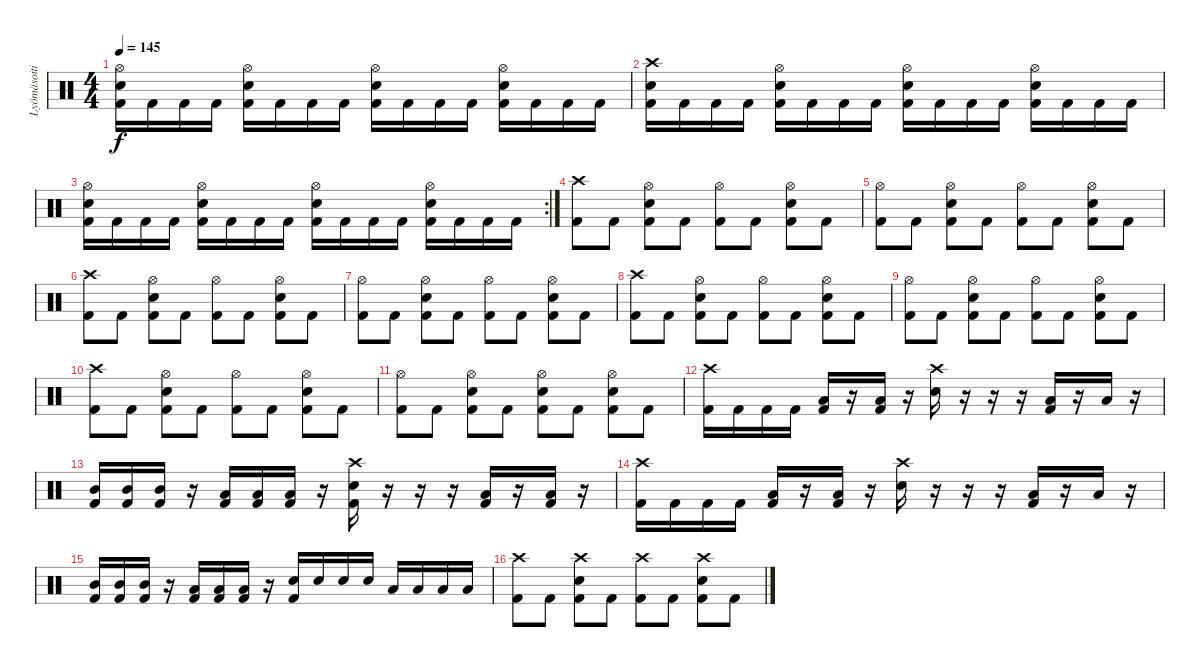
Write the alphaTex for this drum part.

\track ("Lyömäsoitin" "Lyömäsoiti") {instrument percussion}
\staff {score}
\articulation defaults
\ts (4 4)
\tempo 145
\clef neutral
\ks c
("Kick (hit) 2" "Electric Snare (hit)" "Hi-Hat (open)").16{dy f} "Kick (hit) 2".16 "Kick (hit) 2".16 "Kick (hit) 2".16 ("Kick (hit) 2" "Electric Snare (hit)" "Hi-Hat (open)").16 "Kick (hit) 2".16 "Kick (hit) 2".16 "Kick (hit) 2".16 ("Kick (hit) 2" "Electric Snare (hit)" "Hi-Hat (open)").16 "Kick (hit) 2".16 "Kick (hit) 2".16 "Kick (hit) 2".16 ("Kick (hit) 2" "Electric Snare (hit)" "Hi-Hat (open)").16 "Kick (hit) 2".16 "Kick (hit) 2".16 "Kick (hit) 2".16 |
("Kick (hit) 2" "Electric Snare (hit)" "Crash high (hit)").16 "Kick (hit) 2".16 "Kick (hit) 2".16 "Kick (hit) 2".16 ("Kick (hit) 2" "Electric Snare (hit)" "Hi-Hat (open)").16 "Kick (hit) 2".16 "Kick (hit) 2".16 "Kick (hit) 2".16 ("Kick (hit) 2" "Electric Snare (hit)" "Hi-Hat (open)").16 "Kick (hit) 2".16 "Kick (hit) 2".16 "Kick (hit) 2".16 ("Kick (hit) 2" "Electric Snare (hit)" "Hi-Hat (open)").16 "Kick (hit) 2".16 "Kick (hit) 2".16 "Kick (hit) 2".16 |
\rc 2
("Kick (hit) 2" "Electric Snare (hit)" "Hi-Hat (open)").16 "Kick (hit) 2".16 "Kick (hit) 2".16 "Kick (hit) 2".16 ("Kick (hit) 2" "Electric Snare (hit)" "Hi-Hat (open)").16 "Kick (hit) 2".16 "Kick (hit) 2".16 "Kick (hit) 2".16 ("Kick (hit) 2" "Electric Snare (hit)" "Hi-Hat (open)").16 "Kick (hit) 2".16 "Kick (hit) 2".16 "Kick (hit) 2".16 ("Kick (hit) 2" "Electric Snare (hit)" "Hi-Hat (open)").16 "Kick (hit) 2".16 "Kick (hit) 2".16 "Kick (hit) 2".16 |
("Kick (hit) 2" "Crash high (hit)").8 "Kick (hit) 2".8 ("Kick (hit) 2" "Electric Snare (hit)" "Hi-Hat (open)").8 "Kick (hit) 2".8 ("Kick (hit) 2" "Hi-Hat (open)").8 "Kick (hit) 2".8 ("Kick (hit) 2" "Electric Snare (hit)" "Hi-Hat (open)").8 "Kick (hit) 2".8 |
("Kick (hit) 2" "Hi-Hat (open)").8 "Kick (hit) 2".8 ("Kick (hit) 2" "Electric Snare (hit)" "Hi-Hat (open)").8 "Kick (hit) 2".8 ("Kick (hit) 2" "Hi-Hat (open)").8 "Kick (hit) 2".8 ("Kick (hit) 2" "Electric Snare (hit)" "Hi-Hat (open)").8 "Kick (hit) 2".8 |
("Kick (hit) 2" "Crash high (hit)").8 "Kick (hit) 2".8 ("Kick (hit) 2" "Electric Snare (hit)" "Hi-Hat (open)").8 "Kick (hit) 2".8 ("Kick (hit) 2" "Hi-Hat (open)").8 "Kick (hit) 2".8 ("Kick (hit) 2" "Electric Snare (hit)" "Hi-Hat (open)").8 "Kick (hit) 2".8 |
("Kick (hit) 2" "Hi-Hat (open)").8 "Kick (hit) 2".8 ("Kick (hit) 2" "Electric Snare (hit)" "Hi-Hat (open)").8 "Kick (hit) 2".8 ("Kick (hit) 2" "Hi-Hat (open)").8 "Kick (hit) 2".8 ("Kick (hit) 2" "Electric Snare (hit)" "Hi-Hat (open)").8 "Kick (hit) 2".8 |
("Kick (hit) 2" "Crash high (hit)").8 "Kick (hit) 2".8 ("Kick (hit) 2" "Electric Snare (hit)" "Hi-Hat (open)").8 "Kick (hit) 2".8 ("Kick (hit) 2" "Hi-Hat (open)").8 "Kick (hit) 2".8 ("Kick (hit) 2" "Electric Snare (hit)" "Hi-Hat (open)").8 "Kick (hit) 2".8 |
("Kick (hit) 2" "Hi-Hat (open)").8 "Kick (hit) 2".8 ("Kick (hit) 2" "Electric Snare (hit)" "Hi-Hat (open)").8 "Kick (hit) 2".8 ("Kick (hit) 2" "Hi-Hat (open)").8 "Kick (hit) 2".8 ("Kick (hit) 2" "Electric Snare (hit)" "Hi-Hat (open)").8 "Kick (hit) 2".8 |
("Kick (hit) 2" "Crash high (hit)").8 "Kick (hit) 2".8 ("Kick (hit) 2" "Electric Snare (hit)" "Hi-Hat (open)").8 "Kick (hit) 2".8 ("Kick (hit) 2" "Hi-Hat (open)").8 "Kick (hit) 2".8 ("Kick (hit) 2" "Electric Snare (hit)" "Hi-Hat (open)").8 "Kick (hit) 2".8 |
("Kick (hit) 2" "Hi-Hat (open)").8 "Kick (hit) 2".8 ("Kick (hit) 2" "Electric Snare (hit)" "Hi-Hat (open)").8 "Kick (hit) 2".8 ("Kick (hit) 2" "Electric Snare (hit)" "Hi-Hat (open)").8 "Kick (hit) 2".8 ("Kick (hit) 2" "Electric Snare (hit)" "Hi-Hat (open)").8 "Kick (hit) 2".8 |
("Kick (hit) 2" "Crash high (hit)").16 "Kick (hit) 2".16 "Kick (hit) 2".16 "Kick (hit) 2".16 ("Kick (hit) 2" "Low Tom (hit)").16 r.16 ("Kick (hit) 2" "Low Tom (hit)").16 r.16 ("Electric Snare (hit)" "Crash high (hit)").16 r.16 r.16 r.16 ("Kick (hit) 2" "Low Tom (hit)").16 r.16 "Low Floor Tom (hit)".16 r.16 |
("Kick (hit) 2" "Mid Tom (hit)").16 ("Kick (hit) 2" "Mid Tom (hit)").16 ("Kick (hit) 2" "Mid Tom (hit)").16 r.16 ("Kick (hit) 2" "Low Tom (hit)").16 ("Kick (hit) 2" "Low Tom (hit)").16 ("Kick (hit) 2" "Low Tom (hit)").16 r.16 ("Kick (hit) 2" "Electric Snare (hit)" "Crash high (hit)").16 r.16 r.16 r.16 ("Kick (hit) 2" "Low Tom (hit)").16 r.16 ("Kick (hit) 2" "Low Floor Tom (hit)").16 r.16 |
("Kick (hit) 2" "Crash high (hit)").16 "Kick (hit) 2".16 "Kick (hit) 2".16 "Kick (hit) 2".16 ("Kick (hit) 2" "Low Tom (hit)").16 r.16 ("Kick (hit) 2" "Low Tom (hit)").16 r.16 ("Electric Snare (hit)" "Crash high (hit)").16 r.16 r.16 r.16 ("Kick (hit) 2" "Low Tom (hit)").16 r.16 "Low Floor Tom (hit)".16 r.16 |
("Kick (hit) 2" "Mid Tom (hit)").16 ("Kick (hit) 2" "Mid Tom (hit)").16 ("Kick (hit) 2" "Mid Tom (hit)").16 r.16 ("Kick (hit) 2" "Low Tom (hit)").16 ("Kick (hit) 2" "Low Tom (hit)").16 ("Kick (hit) 2" "Low Tom (hit)").16 r.16 ("Kick (hit) 2" "Electric Snare (hit)").16 "Electric Snare (hit)".16 "Electric Snare (hit)".16 "Electric Snare (hit)".16 "Low Tom (hit)".16 "Low Tom (hit)".16 "Low Tom (hit)".16 "Low Tom (hit)".16 |
("Kick (hit) 2" "Crash high (hit)").8 "Kick (hit) 2".8 ("Kick (hit) 2" "Electric Snare (hit)" "Crash high (hit)").8 "Kick (hit) 2".8 ("Kick (hit) 2" "Crash high (hit)").8 "Kick (hit) 2".8 ("Kick (hit) 2" "Electric Snare (hit)" "Crash high (hit)").8 "Kick (hit) 2".8
